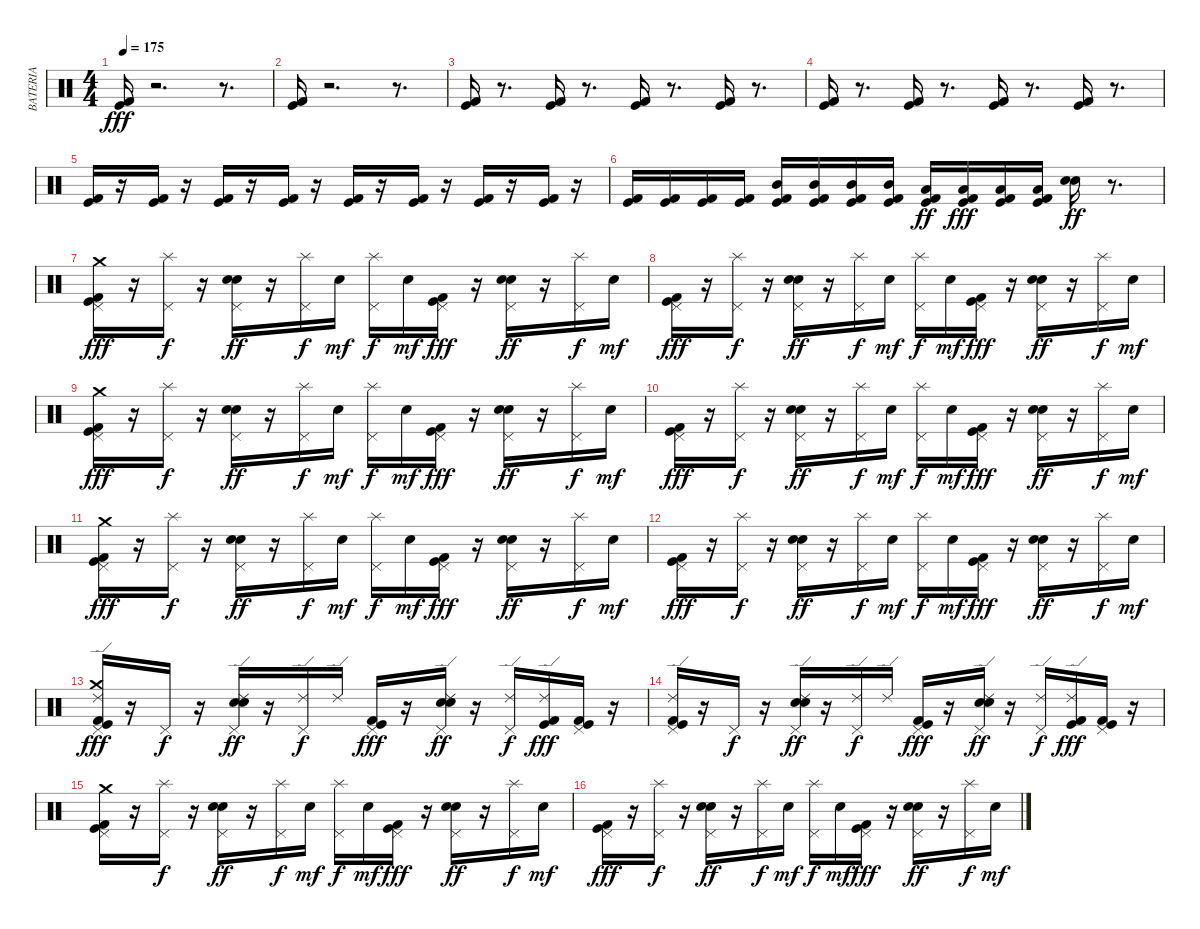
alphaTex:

\track ("BATERIA" "BATERIA") {instrument percussion}
\staff {score}
\articulation defaults
\ts (4 4)
\tempo 175
\clef neutral
\ks c
("Kick (hit) 2" "Kick (hit)").16{dy fff} r.2{d} r.8{d} |
("Kick (hit) 2" "Kick (hit)").16 r.2{d} r.8{d} |
("Kick (hit) 2" "Kick (hit)").16 r.8{d} ("Kick (hit) 2" "Kick (hit)").16 r.8{d} ("Kick (hit) 2" "Kick (hit)").16 r.8{d} ("Kick (hit) 2" "Kick (hit)").16 r.8{d} |
("Kick (hit) 2" "Kick (hit)").16 r.8{d} ("Kick (hit) 2" "Kick (hit)").16 r.8{d} ("Kick (hit) 2" "Kick (hit)").16 r.8{d} ("Kick (hit) 2" "Kick (hit)").16 r.8{d} |
("Kick (hit) 2" "Kick (hit)").16 r.16 ("Kick (hit)" "Kick (hit) 2").16 r.16 ("Kick (hit) 2" "Kick (hit)").16 r.16 ("Kick (hit)" "Kick (hit) 2").16 r.16 ("Kick (hit) 2" "Kick (hit)").16 r.16 ("Kick (hit)" "Kick (hit) 2").16 r.16 ("Kick (hit) 2" "Kick (hit)").16 r.16 ("Kick (hit)" "Kick (hit) 2").16 r.16 |
("Kick (hit) 2" "Kick (hit)").16 ("Kick (hit)" "Kick (hit) 2").16 ("Kick (hit)" "Kick (hit) 2").16 ("Kick (hit)" "Kick (hit) 2").16 ("Kick (hit) 2" "Kick (hit)" "Mid Tom (hit)").16 ("Mid Tom (hit)" "Kick (hit)" "Kick (hit) 2").16 ("Mid Tom (hit)" "Kick (hit)" "Kick (hit) 2").16 ("Mid Tom (hit)" "Kick (hit)" "Kick (hit) 2").16 ("Kick (hit) 2" "Kick (hit)" "Low Tom (hit)").16{dy ff} ("Low Tom (hit)" "Kick (hit)" "Kick (hit) 2").16{dy fff} ("Low Tom (hit)" "Kick (hit)" "Kick (hit) 2").16 ("Low Tom (hit)" "Kick (hit)" "Kick (hit) 2").16 ("Electric Snare (hit)" "Snare (hit) 2").16{dy ff} r.8{d} |
("Crash medium (hit)" "Kick (hit) 2" "Kick (hit)" "Pedal Hi-Hat (hit)").16{dy fff} r.16 ("Splash (hit)" "Pedal Hi-Hat (hit)").16{dy f} r.16 ("Electric Snare (hit)" "Snare (hit) 2" "Pedal Hi-Hat (hit)").16{dy ff} r.16 ("Pedal Hi-Hat (hit)" "Splash (hit)").16{dy f} "Snare (hit) 2".16{dy mf} ("Pedal Hi-Hat (hit)" "Splash (hit)").16{dy f} "Snare (hit) 2".16{dy mf} ("Kick (hit) 2" "Kick (hit)" "Pedal Hi-Hat (hit)").16{dy fff} r.16 ("Electric Snare (hit)" "Snare (hit) 2" "Pedal Hi-Hat (hit)").16{dy ff} r.16 ("Pedal Hi-Hat (hit)" "Splash (hit)").16{dy f} "Snare (hit) 2".16{dy mf} |
("Kick (hit) 2" "Kick (hit)" "Pedal Hi-Hat (hit)").16{dy fff} r.16 ("Splash (hit)" "Pedal Hi-Hat (hit)").16{dy f} r.16 ("Electric Snare (hit)" "Snare (hit) 2" "Pedal Hi-Hat (hit)").16{dy ff} r.16 ("Pedal Hi-Hat (hit)" "Splash (hit)").16{dy f} "Snare (hit) 2".16{dy mf} ("Pedal Hi-Hat (hit)" "Splash (hit)").16{dy f} "Snare (hit) 2".16{dy mf} ("Kick (hit) 2" "Kick (hit)" "Pedal Hi-Hat (hit)").16{dy fff} r.16 ("Electric Snare (hit)" "Snare (hit) 2" "Pedal Hi-Hat (hit)").16{dy ff} r.16 ("Pedal Hi-Hat (hit)" "Splash (hit)").16{dy f} "Snare (hit) 2".16{dy mf} |
("Pedal Hi-Hat (hit)" "Kick (hit)" "Kick (hit) 2" "Crash medium (hit)").16{dy fff} r.16 ("Pedal Hi-Hat (hit)" "Splash (hit)").16{dy f} r.16 ("Pedal Hi-Hat (hit)" "Snare (hit) 2" "Electric Snare (hit)").16{dy ff} r.16 ("Splash (hit)" "Pedal Hi-Hat (hit)").16{dy f} "Snare (hit) 2".16{dy mf} ("Splash (hit)" "Pedal Hi-Hat (hit)").16{dy f} "Snare (hit) 2".16{dy mf} ("Pedal Hi-Hat (hit)" "Kick (hit)" "Kick (hit) 2").16{dy fff} r.16 ("Pedal Hi-Hat (hit)" "Snare (hit) 2" "Electric Snare (hit)").16{dy ff} r.16 ("Splash (hit)" "Pedal Hi-Hat (hit)").16{dy f} "Snare (hit) 2".16{dy mf} |
("Pedal Hi-Hat (hit)" "Kick (hit)" "Kick (hit) 2").16{dy fff} r.16 ("Pedal Hi-Hat (hit)" "Splash (hit)").16{dy f} r.16 ("Pedal Hi-Hat (hit)" "Snare (hit) 2" "Electric Snare (hit)").16{dy ff} r.16 ("Splash (hit)" "Pedal Hi-Hat (hit)").16{dy f} "Snare (hit) 2".16{dy mf} ("Splash (hit)" "Pedal Hi-Hat (hit)").16{dy f} "Snare (hit) 2".16{dy mf} ("Pedal Hi-Hat (hit)" "Kick (hit)" "Kick (hit) 2").16{dy fff} r.16 ("Pedal Hi-Hat (hit)" "Snare (hit) 2" "Electric Snare (hit)").16{dy ff} r.16 ("Splash (hit)" "Pedal Hi-Hat (hit)").16{dy f} "Snare (hit) 2".16{dy mf} |
("Crash medium (hit)" "Kick (hit) 2" "Kick (hit)" "Pedal Hi-Hat (hit)").16{dy fff} r.16 ("Splash (hit)" "Pedal Hi-Hat (hit)").16{dy f} r.16 ("Electric Snare (hit)" "Snare (hit) 2" "Pedal Hi-Hat (hit)").16{dy ff} r.16 ("Pedal Hi-Hat (hit)" "Splash (hit)").16{dy f} "Snare (hit) 2".16{dy mf} ("Pedal Hi-Hat (hit)" "Splash (hit)").16{dy f} "Snare (hit) 2".16{dy mf} ("Kick (hit) 2" "Kick (hit)" "Pedal Hi-Hat (hit)").16{dy fff} r.16 ("Electric Snare (hit)" "Snare (hit) 2" "Pedal Hi-Hat (hit)").16{dy ff} r.16 ("Pedal Hi-Hat (hit)" "Splash (hit)").16{dy f} "Snare (hit) 2".16{dy mf} |
("Kick (hit) 2" "Kick (hit)" "Pedal Hi-Hat (hit)").16{dy fff} r.16 ("Splash (hit)" "Pedal Hi-Hat (hit)").16{dy f} r.16 ("Electric Snare (hit)" "Snare (hit) 2" "Pedal Hi-Hat (hit)").16{dy ff} r.16 ("Pedal Hi-Hat (hit)" "Splash (hit)").16{dy f} "Snare (hit) 2".16{dy mf} ("Pedal Hi-Hat (hit)" "Splash (hit)").16{dy f} "Snare (hit) 2".16{dy mf} ("Kick (hit) 2" "Kick (hit)" "Pedal Hi-Hat (hit)").16{dy fff} r.16 ("Electric Snare (hit)" "Snare (hit) 2" "Pedal Hi-Hat (hit)").16{dy ff} r.16 ("Pedal Hi-Hat (hit)" "Splash (hit)").16{dy f} "Snare (hit) 2".16{dy mf} |
("Ride (edge) 2" "Crash medium (hit)" "Kick (hit) 2" "Kick (hit)" "Pedal Hi-Hat (hit)").16{dy fff} r.16 "Pedal Hi-Hat (hit)".16{dy f} r.16 ("Ride (edge) 2" "Electric Snare (hit)" "Snare (hit) 2" "Pedal Hi-Hat (hit)").16{dy ff} r.16 ("Ride (edge) 2" "Pedal Hi-Hat (hit)").16{dy f} "Ride (edge) 2".16 ("Kick (hit) 2" "Kick (hit)" "Pedal Hi-Hat (hit)").16{dy fff} r.16 ("Ride (edge) 2" "Electric Snare (hit)" "Snare (hit) 2" "Pedal Hi-Hat (hit)").16{dy ff} r.16 ("Ride (edge) 2" "Pedal Hi-Hat (hit)").16{dy f} ("Ride (edge) 2" "Kick (hit)" "Kick (hit) 2").16{dy fff} ("Kick (hit) 2" "Kick (hit)" "Pedal Hi-Hat (hit)").16 r.16 |
("Ride (edge) 2" "Kick (hit) 2" "Kick (hit)" "Pedal Hi-Hat (hit)").16 r.16 "Pedal Hi-Hat (hit)".16{dy f} r.16 ("Pedal Hi-Hat (hit)" "Snare (hit) 2" "Electric Snare (hit)" "Ride (edge) 2").16{dy ff} r.16 ("Pedal Hi-Hat (hit)" "Ride (edge) 2").16{dy f} "Ride (edge) 2".16 ("Kick (hit) 2" "Kick (hit)" "Pedal Hi-Hat (hit)").16{dy fff} r.16 ("Ride (edge) 2" "Electric Snare (hit)" "Snare (hit) 2" "Pedal Hi-Hat (hit)").16{dy ff} r.16 ("Ride (edge) 2" "Pedal Hi-Hat (hit)").16{dy f} ("Ride (edge) 2" "Kick (hit)" "Kick (hit) 2").16{dy fff} ("Kick (hit) 2" "Kick (hit)" "Pedal Hi-Hat (hit)").16 r.16 |
("Crash medium (hit)" "Kick (hit) 2" "Kick (hit)" "Pedal Hi-Hat (hit)").16 r.16 ("Splash (hit)" "Pedal Hi-Hat (hit)").16{dy f} r.16 ("Electric Snare (hit)" "Snare (hit) 2" "Pedal Hi-Hat (hit)").16{dy ff} r.16 ("Pedal Hi-Hat (hit)" "Splash (hit)").16{dy f} "Snare (hit) 2".16{dy mf} ("Pedal Hi-Hat (hit)" "Splash (hit)").16{dy f} "Snare (hit) 2".16{dy mf} ("Kick (hit) 2" "Kick (hit)" "Pedal Hi-Hat (hit)").16{dy fff} r.16 ("Electric Snare (hit)" "Snare (hit) 2" "Pedal Hi-Hat (hit)").16{dy ff} r.16 ("Pedal Hi-Hat (hit)" "Splash (hit)").16{dy f} "Snare (hit) 2".16{dy mf} |
("Kick (hit) 2" "Kick (hit)" "Pedal Hi-Hat (hit)").16{dy fff} r.16 ("Splash (hit)" "Pedal Hi-Hat (hit)").16{dy f} r.16 ("Electric Snare (hit)" "Snare (hit) 2" "Pedal Hi-Hat (hit)").16{dy ff} r.16 ("Pedal Hi-Hat (hit)" "Splash (hit)").16{dy f} "Snare (hit) 2".16{dy mf} ("Pedal Hi-Hat (hit)" "Splash (hit)").16{dy f} "Snare (hit) 2".16{dy mf} ("Kick (hit) 2" "Kick (hit)" "Pedal Hi-Hat (hit)").16{dy fff} r.16 ("Electric Snare (hit)" "Snare (hit) 2" "Pedal Hi-Hat (hit)").16{dy ff} r.16 ("Pedal Hi-Hat (hit)" "Splash (hit)").16{dy f} "Snare (hit) 2".16{dy mf}
